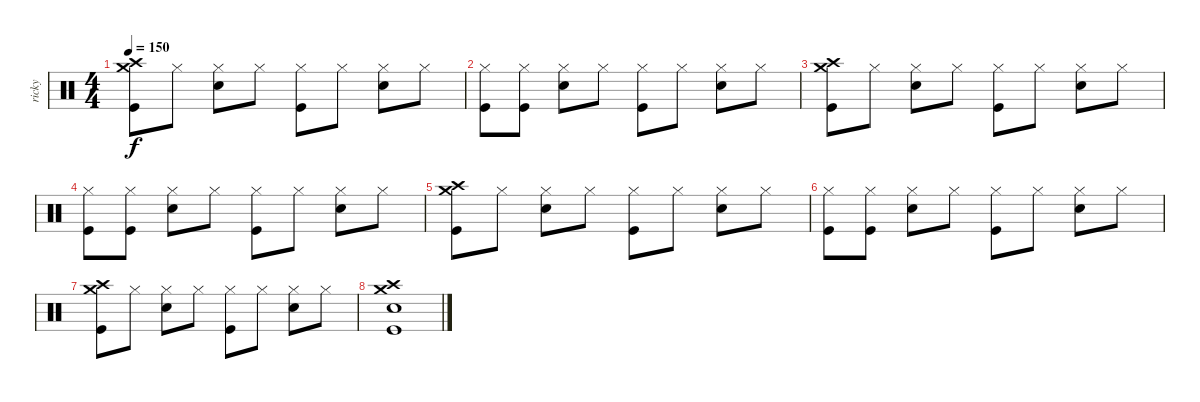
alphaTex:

\track ("ricky" "ricky") {instrument percussion}
\staff {score}
\articulation defaults
\ts (4 4)
\tempo 150
\clef neutral
\ks c
("Crash medium (hit)" "Crash high (hit)" "Kick (hit)").8{dy f} "Hi-Hat (closed)".8 ("Hi-Hat (closed)" "Electric Snare (hit)").8 "Hi-Hat (closed)".8 ("Hi-Hat (closed)" "Kick (hit)").8 "Hi-Hat (closed)".8 ("Hi-Hat (closed)" "Electric Snare (hit)").8 "Hi-Hat (closed)".8 |
("Hi-Hat (closed)" "Kick (hit)").8 ("Hi-Hat (closed)" "Kick (hit)").8 ("Hi-Hat (closed)" "Electric Snare (hit)").8 "Hi-Hat (closed)".8 ("Hi-Hat (closed)" "Kick (hit)").8 "Hi-Hat (closed)".8 ("Hi-Hat (closed)" "Electric Snare (hit)").8 "Hi-Hat (closed)".8 |
("Crash medium (hit)" "Crash high (hit)" "Kick (hit)").8 "Hi-Hat (closed)".8 ("Hi-Hat (closed)" "Electric Snare (hit)").8 "Hi-Hat (closed)".8 ("Hi-Hat (closed)" "Kick (hit)").8 "Hi-Hat (closed)".8 ("Hi-Hat (closed)" "Electric Snare (hit)").8 "Hi-Hat (closed)".8 |
("Hi-Hat (closed)" "Kick (hit)").8 ("Hi-Hat (closed)" "Kick (hit)").8 ("Hi-Hat (closed)" "Electric Snare (hit)").8 "Hi-Hat (closed)".8 ("Hi-Hat (closed)" "Kick (hit)").8 "Hi-Hat (closed)".8 ("Hi-Hat (closed)" "Electric Snare (hit)").8 "Hi-Hat (closed)".8 |
("Crash medium (hit)" "Crash high (hit)" "Kick (hit)").8 "Hi-Hat (closed)".8 ("Hi-Hat (closed)" "Electric Snare (hit)").8 "Hi-Hat (closed)".8 ("Hi-Hat (closed)" "Kick (hit)").8 "Hi-Hat (closed)".8 ("Hi-Hat (closed)" "Electric Snare (hit)").8 "Hi-Hat (closed)".8 |
("Hi-Hat (closed)" "Kick (hit)").8 ("Hi-Hat (closed)" "Kick (hit)").8 ("Hi-Hat (closed)" "Electric Snare (hit)").8 "Hi-Hat (closed)".8 ("Hi-Hat (closed)" "Kick (hit)").8 "Hi-Hat (closed)".8 ("Hi-Hat (closed)" "Electric Snare (hit)").8 "Hi-Hat (closed)".8 |
("Crash medium (hit)" "Crash high (hit)" "Kick (hit)").8 "Hi-Hat (closed)".8 ("Hi-Hat (closed)" "Electric Snare (hit)").8 "Hi-Hat (closed)".8 ("Hi-Hat (closed)" "Kick (hit)").8 "Hi-Hat (closed)".8 ("Hi-Hat (closed)" "Electric Snare (hit)").8 "Hi-Hat (closed)".8 |
("Crash high (hit)" "Crash medium (hit)" "Electric Snare (hit)" "Kick (hit)").1
